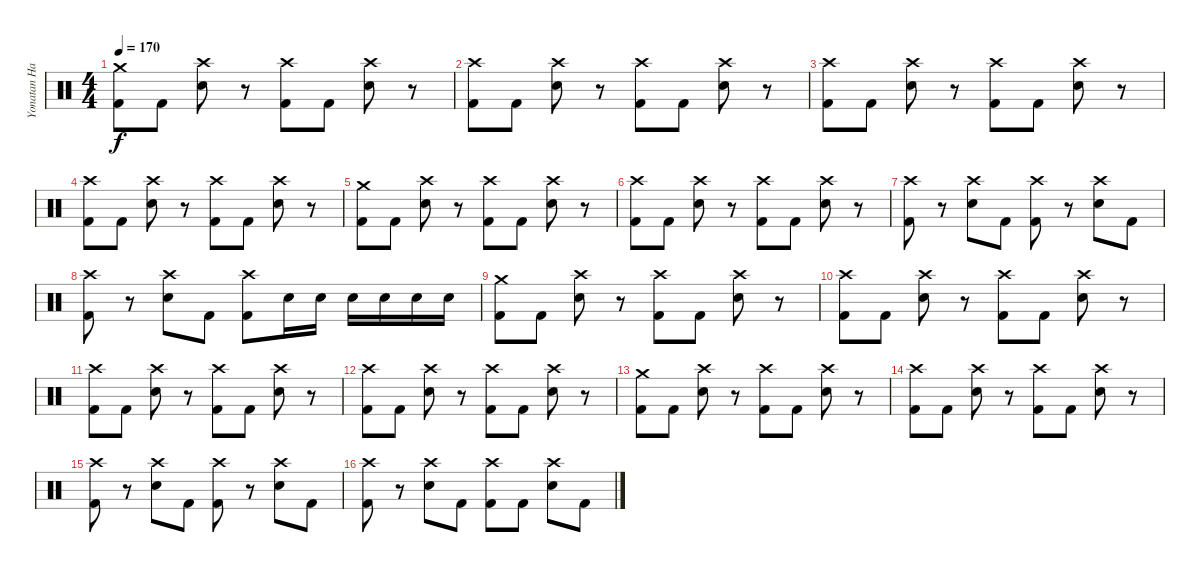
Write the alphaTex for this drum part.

\track ("Yonatan Harpak (drums)" "Yonatan Ha") {instrument percussion}
\staff {score}
\articulation defaults
\ts (4 4)
\tempo 170
\clef neutral
\ks c
("Crash medium (hit)" "Kick (hit) 2").8{dy f} "Kick (hit) 2".8 ("Crash high (hit)" "Snare (hit) 2").8 r.8 ("Crash high (hit)" "Kick (hit) 2").8 "Kick (hit) 2".8 ("Crash high (hit)" "Snare (hit) 2").8 r.8 |
("Crash high (hit)" "Kick (hit) 2").8 "Kick (hit) 2".8 ("Crash high (hit)" "Snare (hit) 2").8 r.8 ("Crash high (hit)" "Kick (hit) 2").8 "Kick (hit) 2".8 ("Crash high (hit)" "Snare (hit) 2").8 r.8 |
("Crash high (hit)" "Kick (hit) 2").8 "Kick (hit) 2".8 ("Crash high (hit)" "Snare (hit) 2").8 r.8 ("Crash high (hit)" "Kick (hit) 2").8 "Kick (hit) 2".8 ("Crash high (hit)" "Snare (hit) 2").8 r.8 |
("Crash high (hit)" "Kick (hit) 2").8 "Kick (hit) 2".8 ("Crash high (hit)" "Snare (hit) 2").8 r.8 ("Crash high (hit)" "Kick (hit) 2").8 "Kick (hit) 2".8 ("Crash high (hit)" "Snare (hit) 2").8 r.8 |
("Crash medium (hit)" "Kick (hit) 2").8 "Kick (hit) 2".8 ("Crash high (hit)" "Snare (hit) 2").8 r.8 ("Crash high (hit)" "Kick (hit) 2").8 "Kick (hit) 2".8 ("Crash high (hit)" "Snare (hit) 2").8 r.8 |
("Crash high (hit)" "Kick (hit) 2").8 "Kick (hit) 2".8 ("Crash high (hit)" "Snare (hit) 2").8 r.8 ("Crash high (hit)" "Kick (hit) 2").8 "Kick (hit) 2".8 ("Crash high (hit)" "Snare (hit) 2").8 r.8 |
("Crash high (hit)" "Kick (hit) 2").8 r.8 ("Crash high (hit)" "Snare (hit) 2").8 "Kick (hit) 2".8 ("Crash high (hit)" "Kick (hit) 2").8 r.8 ("Crash high (hit)" "Snare (hit) 2").8 "Kick (hit) 2".8 |
("Crash high (hit)" "Kick (hit) 2").8 r.8 ("Crash high (hit)" "Snare (hit) 2").8 "Kick (hit) 2".8 ("Crash high (hit)" "Kick (hit) 2").8 "Snare (hit) 2".16 "Snare (hit) 2".16 "Snare (hit) 2".16 "Snare (hit) 2".16 "Snare (hit) 2".16 "Snare (hit) 2".16 |
("Crash medium (hit)" "Kick (hit) 2").8 "Kick (hit) 2".8 ("Crash high (hit)" "Snare (hit) 2").8 r.8 ("Crash high (hit)" "Kick (hit) 2").8 "Kick (hit) 2".8 ("Crash high (hit)" "Snare (hit) 2").8 r.8 |
("Crash high (hit)" "Kick (hit) 2").8 "Kick (hit) 2".8 ("Crash high (hit)" "Snare (hit) 2").8 r.8 ("Crash high (hit)" "Kick (hit) 2").8 "Kick (hit) 2".8 ("Crash high (hit)" "Snare (hit) 2").8 r.8 |
("Crash high (hit)" "Kick (hit) 2").8 "Kick (hit) 2".8 ("Crash high (hit)" "Snare (hit) 2").8 r.8 ("Crash high (hit)" "Kick (hit) 2").8 "Kick (hit) 2".8 ("Crash high (hit)" "Snare (hit) 2").8 r.8 |
("Crash high (hit)" "Kick (hit) 2").8 "Kick (hit) 2".8 ("Crash high (hit)" "Snare (hit) 2").8 r.8 ("Crash high (hit)" "Kick (hit) 2").8 "Kick (hit) 2".8 ("Crash high (hit)" "Snare (hit) 2").8 r.8 |
("Crash medium (hit)" "Kick (hit) 2").8 "Kick (hit) 2".8 ("Crash high (hit)" "Snare (hit) 2").8 r.8 ("Crash high (hit)" "Kick (hit) 2").8 "Kick (hit) 2".8 ("Crash high (hit)" "Snare (hit) 2").8 r.8 |
("Crash high (hit)" "Kick (hit) 2").8 "Kick (hit) 2".8 ("Crash high (hit)" "Snare (hit) 2").8 r.8 ("Crash high (hit)" "Kick (hit) 2").8 "Kick (hit) 2".8 ("Crash high (hit)" "Snare (hit) 2").8 r.8 |
("Crash high (hit)" "Kick (hit) 2").8 r.8 ("Crash high (hit)" "Snare (hit) 2").8 "Kick (hit) 2".8 ("Crash high (hit)" "Kick (hit) 2").8 r.8 ("Crash high (hit)" "Snare (hit) 2").8 "Kick (hit) 2".8 |
("Crash high (hit)" "Kick (hit) 2").8 r.8 ("Crash high (hit)" "Snare (hit) 2").8 "Kick (hit) 2".8 ("Crash high (hit)" "Kick (hit) 2").8 "Kick (hit) 2".8 ("Crash high (hit)" "Snare (hit) 2").8 "Kick (hit) 2".8
